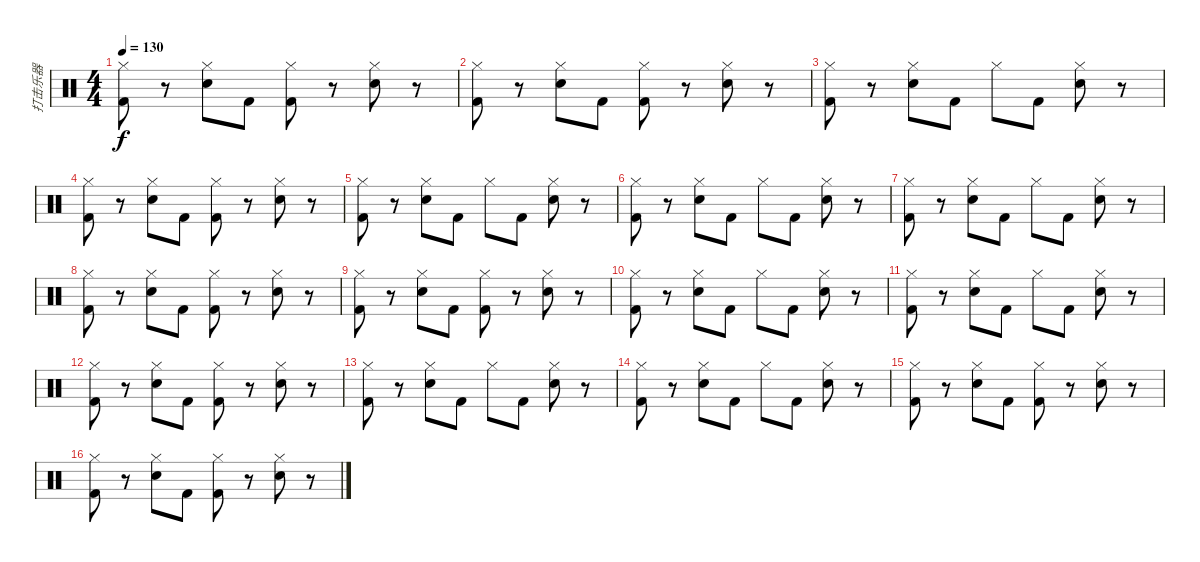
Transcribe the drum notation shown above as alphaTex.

\track ("打击乐器" "打击乐器") {instrument percussion}
\staff {score}
\articulation defaults
\ts (4 4)
\tempo 130
\clef neutral
\ks c
("Hi-Hat (closed)" "Kick (hit) 2").8{dy f} r.8 ("Hi-Hat (closed)" "Electric Snare (hit)").8 "Kick (hit) 2".8 ("Hi-Hat (closed)" "Kick (hit) 2").8 r.8 ("Hi-Hat (closed)" "Electric Snare (hit)").8 r.8 |
("Hi-Hat (closed)" "Kick (hit) 2").8 r.8 ("Hi-Hat (closed)" "Electric Snare (hit)").8 "Kick (hit) 2".8 ("Hi-Hat (closed)" "Kick (hit) 2").8 r.8 ("Hi-Hat (closed)" "Electric Snare (hit)").8 r.8 |
("Hi-Hat (closed)" "Kick (hit) 2").8 r.8 ("Hi-Hat (closed)" "Electric Snare (hit)").8 "Kick (hit) 2".8 "Hi-Hat (closed)".8 "Kick (hit) 2".8 ("Hi-Hat (closed)" "Electric Snare (hit)").8 r.8 |
("Hi-Hat (closed)" "Kick (hit) 2").8 r.8 ("Hi-Hat (closed)" "Electric Snare (hit)").8 "Kick (hit) 2".8 ("Hi-Hat (closed)" "Kick (hit) 2").8 r.8 ("Hi-Hat (closed)" "Electric Snare (hit)").8 r.8 |
("Hi-Hat (closed)" "Kick (hit) 2").8 r.8 ("Hi-Hat (closed)" "Electric Snare (hit)").8 "Kick (hit) 2".8 "Hi-Hat (closed)".8 "Kick (hit) 2".8 ("Hi-Hat (closed)" "Electric Snare (hit)").8 r.8 |
("Hi-Hat (closed)" "Kick (hit) 2").8 r.8 ("Hi-Hat (closed)" "Electric Snare (hit)").8 "Kick (hit) 2".8 "Hi-Hat (closed)".8 "Kick (hit) 2".8 ("Hi-Hat (closed)" "Electric Snare (hit)").8 r.8 |
("Hi-Hat (closed)" "Kick (hit) 2").8 r.8 ("Hi-Hat (closed)" "Electric Snare (hit)").8 "Kick (hit) 2".8 "Hi-Hat (closed)".8 "Kick (hit) 2".8 ("Hi-Hat (closed)" "Electric Snare (hit)").8 r.8 |
("Hi-Hat (closed)" "Kick (hit) 2").8 r.8 ("Hi-Hat (closed)" "Electric Snare (hit)").8 "Kick (hit) 2".8 ("Hi-Hat (closed)" "Kick (hit) 2").8 r.8 ("Hi-Hat (closed)" "Electric Snare (hit)").8 r.8 |
("Hi-Hat (closed)" "Kick (hit) 2").8 r.8 ("Hi-Hat (closed)" "Electric Snare (hit)").8 "Kick (hit) 2".8 ("Hi-Hat (closed)" "Kick (hit) 2").8 r.8 ("Hi-Hat (closed)" "Electric Snare (hit)").8 r.8 |
("Hi-Hat (closed)" "Kick (hit) 2").8 r.8 ("Hi-Hat (closed)" "Electric Snare (hit)").8 "Kick (hit) 2".8 "Hi-Hat (closed)".8 "Kick (hit) 2".8 ("Hi-Hat (closed)" "Electric Snare (hit)").8 r.8 |
("Hi-Hat (closed)" "Kick (hit) 2").8 r.8 ("Hi-Hat (closed)" "Electric Snare (hit)").8 "Kick (hit) 2".8 "Hi-Hat (closed)".8 "Kick (hit) 2".8 ("Hi-Hat (closed)" "Electric Snare (hit)").8 r.8 |
("Hi-Hat (closed)" "Kick (hit) 2").8 r.8 ("Hi-Hat (closed)" "Electric Snare (hit)").8 "Kick (hit) 2".8 ("Hi-Hat (closed)" "Kick (hit) 2").8 r.8 ("Hi-Hat (closed)" "Electric Snare (hit)").8 r.8 |
("Hi-Hat (closed)" "Kick (hit) 2").8 r.8 ("Hi-Hat (closed)" "Electric Snare (hit)").8 "Kick (hit) 2".8 "Hi-Hat (closed)".8 "Kick (hit) 2".8 ("Hi-Hat (closed)" "Electric Snare (hit)").8 r.8 |
("Hi-Hat (closed)" "Kick (hit) 2").8 r.8 ("Hi-Hat (closed)" "Electric Snare (hit)").8 "Kick (hit) 2".8 "Hi-Hat (closed)".8 "Kick (hit) 2".8 ("Hi-Hat (closed)" "Electric Snare (hit)").8 r.8 |
("Hi-Hat (closed)" "Kick (hit) 2").8 r.8 ("Hi-Hat (closed)" "Electric Snare (hit)").8 "Kick (hit) 2".8 ("Hi-Hat (closed)" "Kick (hit) 2").8 r.8 ("Hi-Hat (closed)" "Electric Snare (hit)").8 r.8 |
("Hi-Hat (closed)" "Kick (hit) 2").8 r.8 ("Hi-Hat (closed)" "Electric Snare (hit)").8 "Kick (hit) 2".8 ("Hi-Hat (closed)" "Kick (hit) 2").8 r.8 ("Hi-Hat (closed)" "Electric Snare (hit)").8 r.8
